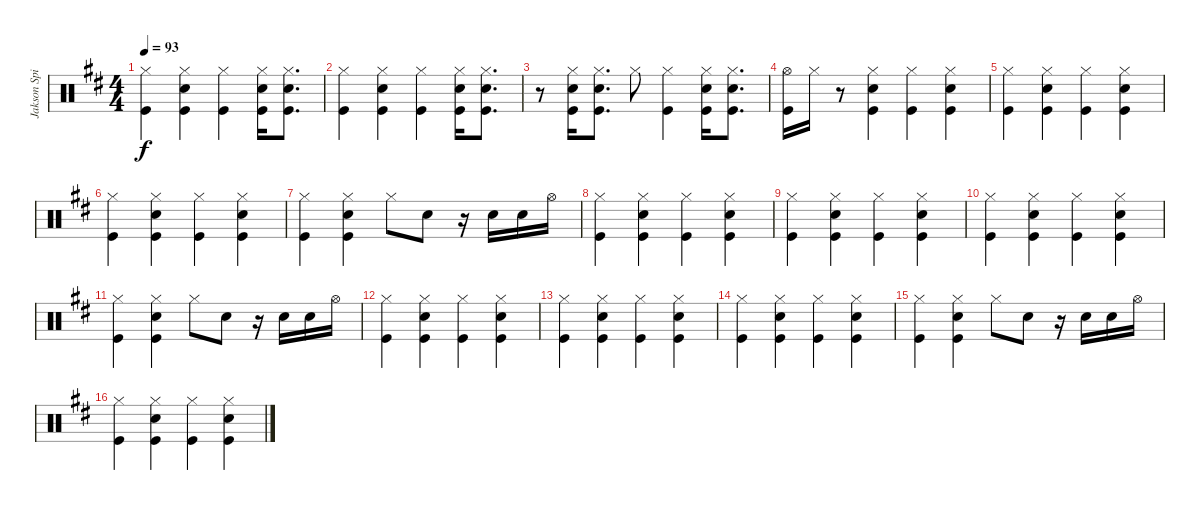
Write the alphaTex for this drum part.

\track ("Jakson Spires Drums" "Jakson Spi") {instrument percussion}
\staff {score}
\articulation defaults
\ts (4 4)
\tempo 93
\clef neutral
\ks bminor
("Hi-Hat (closed)" "Kick (hit)").4{dy f} ("Hi-Hat (closed)" "Snare (hit) 2" "Kick (hit)").4 ("Hi-Hat (closed)" "Kick (hit)").4 ("Hi-Hat (closed)" "Snare (hit) 2" "Kick (hit)").16 ("Hi-Hat (closed)" "Snare (hit) 2" "Kick (hit)").8{d} |
("Hi-Hat (closed)" "Kick (hit)").4 ("Hi-Hat (closed)" "Snare (hit) 2" "Kick (hit)").4 ("Hi-Hat (closed)" "Kick (hit)").4 ("Hi-Hat (closed)" "Snare (hit) 2" "Kick (hit)").16 ("Hi-Hat (closed)" "Snare (hit) 2" "Kick (hit)").8{d} |
r.8 ("Hi-Hat (closed)" "Snare (hit) 2" "Kick (hit)").16 ("Hi-Hat (closed)" "Snare (hit) 2" "Kick (hit)").8{d} "Hi-Hat (closed)".8 ("Hi-Hat (closed)" "Kick (hit)").4 ("Hi-Hat (closed)" "Snare (hit) 2" "Kick (hit)").16 ("Hi-Hat (closed)" "Snare (hit) 2" "Kick (hit)").8{d} |
("Hi-Hat (open)" "Kick (hit)").16 "Hi-Hat (closed)".16 r.8 ("Hi-Hat (closed)" "Snare (hit) 2" "Kick (hit)").4 ("Hi-Hat (closed)" "Kick (hit)").4 ("Hi-Hat (closed)" "Snare (hit) 2" "Kick (hit)").4 |
("Hi-Hat (closed)" "Kick (hit)").4 ("Hi-Hat (closed)" "Snare (hit) 2" "Kick (hit)").4 ("Hi-Hat (closed)" "Kick (hit)").4 ("Hi-Hat (closed)" "Snare (hit) 2" "Kick (hit)").4 |
("Hi-Hat (closed)" "Kick (hit)").4 ("Hi-Hat (closed)" "Snare (hit) 2" "Kick (hit)").4 ("Hi-Hat (closed)" "Kick (hit)").4 ("Hi-Hat (closed)" "Snare (hit) 2" "Kick (hit)").4 |
("Hi-Hat (closed)" "Kick (hit)").4 ("Hi-Hat (closed)" "Snare (hit) 2" "Kick (hit)").4 "Hi-Hat (closed)".8 "Snare (hit) 2".8 r.16 "Snare (hit) 2".16 "Snare (hit) 2".16 "Hi-Hat (open)".16 |
("Hi-Hat (closed)" "Kick (hit)").4 ("Hi-Hat (closed)" "Snare (hit) 2" "Kick (hit)").4 ("Hi-Hat (closed)" "Kick (hit)").4 ("Hi-Hat (closed)" "Snare (hit) 2" "Kick (hit)").4 |
("Hi-Hat (closed)" "Kick (hit)").4 ("Hi-Hat (closed)" "Snare (hit) 2" "Kick (hit)").4 ("Hi-Hat (closed)" "Kick (hit)").4 ("Hi-Hat (closed)" "Snare (hit) 2" "Kick (hit)").4 |
("Hi-Hat (closed)" "Kick (hit)").4 ("Hi-Hat (closed)" "Snare (hit) 2" "Kick (hit)").4 ("Hi-Hat (closed)" "Kick (hit)").4 ("Hi-Hat (closed)" "Snare (hit) 2" "Kick (hit)").4 |
("Hi-Hat (closed)" "Kick (hit)").4 ("Hi-Hat (closed)" "Snare (hit) 2" "Kick (hit)").4 "Hi-Hat (closed)".8 "Snare (hit) 2".8 r.16 "Snare (hit) 2".16 "Snare (hit) 2".16 "Hi-Hat (open)".16 |
("Hi-Hat (closed)" "Kick (hit)").4 ("Hi-Hat (closed)" "Snare (hit) 2" "Kick (hit)").4 ("Hi-Hat (closed)" "Kick (hit)").4 ("Hi-Hat (closed)" "Snare (hit) 2" "Kick (hit)").4 |
("Hi-Hat (closed)" "Kick (hit)").4 ("Hi-Hat (closed)" "Snare (hit) 2" "Kick (hit)").4 ("Hi-Hat (closed)" "Kick (hit)").4 ("Hi-Hat (closed)" "Snare (hit) 2" "Kick (hit)").4 |
("Hi-Hat (closed)" "Kick (hit)").4 ("Hi-Hat (closed)" "Snare (hit) 2" "Kick (hit)").4 ("Hi-Hat (closed)" "Kick (hit)").4 ("Hi-Hat (closed)" "Snare (hit) 2" "Kick (hit)").4 |
("Hi-Hat (closed)" "Kick (hit)").4 ("Hi-Hat (closed)" "Snare (hit) 2" "Kick (hit)").4 "Hi-Hat (closed)".8 "Snare (hit) 2".8 r.16 "Snare (hit) 2".16 "Snare (hit) 2".16 "Hi-Hat (open)".16 |
("Hi-Hat (closed)" "Kick (hit)").4 ("Hi-Hat (closed)" "Snare (hit) 2" "Kick (hit)").4 ("Hi-Hat (closed)" "Kick (hit)").4 ("Hi-Hat (closed)" "Snare (hit) 2" "Kick (hit)").4
